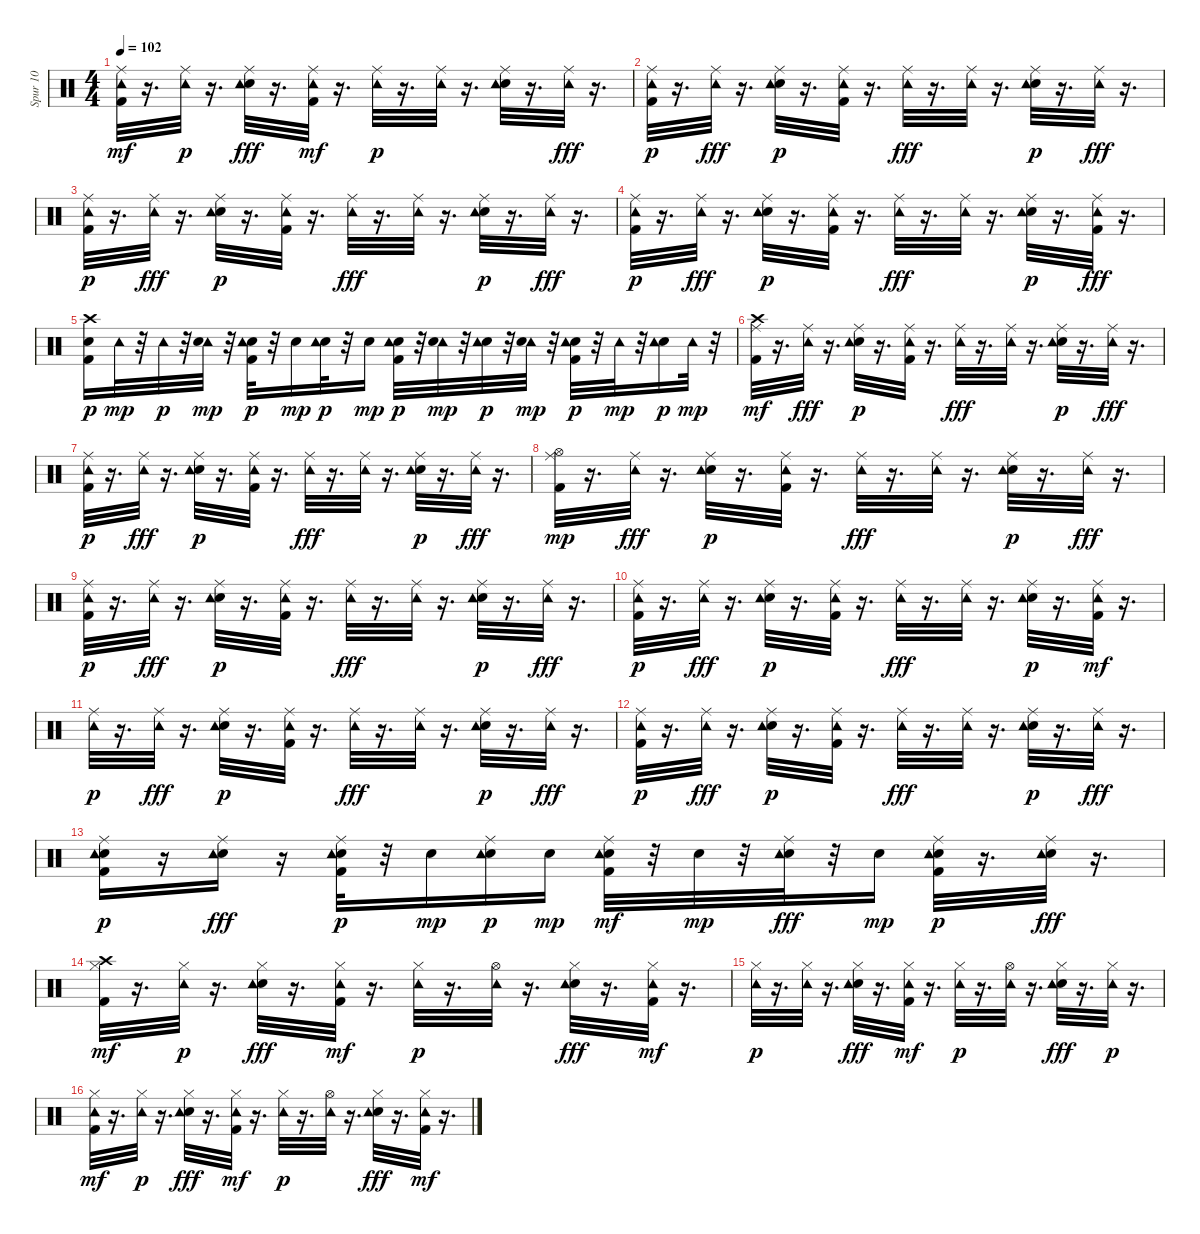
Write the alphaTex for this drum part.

\track ("Spur 10" "Spur 10") {instrument percussion}
\staff {score}
\articulation defaults
\ts (4 4)
\tempo 102
\clef neutral
\ks c
("Ride (middle)" "Tambourine (hit)" "Kick (hit) 2").32{dy mf} r.16{d} ("Ride (middle)" "Tambourine (hit)").32{dy p} r.16{d} ("Electric Snare (hit)" "Tambourine (hit)" "Ride (middle)").32{dy fff} r.16{d} ("Ride (middle)" "Tambourine (hit)" "Kick (hit) 2").32{dy mf} r.16{d} ("Ride (middle)" "Tambourine (hit)").32{dy p} r.16{d} ("Ride (middle)" "Tambourine (hit)").32 r.16{d} ("Ride (middle)" "Electric Snare (hit)" "Tambourine (hit)").32 r.16{d} ("Tambourine (hit)" "Ride (middle)").32{dy fff} r.16{d} |
("Kick (hit) 2" "Ride (middle)" "Tambourine (hit)").32{dy p} r.16{d} ("Tambourine (hit)" "Ride (middle)").32{dy fff} r.16{d} ("Ride (middle)" "Electric Snare (hit)" "Tambourine (hit)").32{dy p} r.16{d} ("Kick (hit) 2" "Ride (middle)" "Tambourine (hit)").32 r.16{d} ("Tambourine (hit)" "Ride (middle)").32{dy fff} r.16{d} ("Tambourine (hit)" "Ride (middle)").32 r.16{d} ("Ride (middle)" "Electric Snare (hit)" "Tambourine (hit)").32{dy p} r.16{d} ("Tambourine (hit)" "Ride (middle)").32{dy fff} r.16{d} |
("Kick (hit) 2" "Ride (middle)" "Tambourine (hit)").32{dy p} r.16{d} ("Tambourine (hit)" "Ride (middle)").32{dy fff} r.16{d} ("Ride (middle)" "Electric Snare (hit)" "Tambourine (hit)").32{dy p} r.16{d} ("Kick (hit) 2" "Ride (middle)" "Tambourine (hit)").32 r.16{d} ("Tambourine (hit)" "Ride (middle)").32{dy fff} r.16{d} ("Tambourine (hit)" "Ride (middle)").32 r.16{d} ("Ride (middle)" "Electric Snare (hit)" "Tambourine (hit)").32{dy p} r.16{d} ("Tambourine (hit)" "Ride (middle)").32{dy fff} r.16{d} |
("Kick (hit) 2" "Ride (middle)" "Tambourine (hit)").32{dy p} r.16{d} ("Tambourine (hit)" "Ride (middle)").32{dy fff} r.16{d} ("Ride (middle)" "Electric Snare (hit)" "Tambourine (hit)").32{dy p} r.16{d} ("Kick (hit) 2" "Ride (middle)" "Tambourine (hit)").32 r.16{d} ("Tambourine (hit)" "Ride (middle)").32{dy fff} r.16{d} ("Tambourine (hit)" "Ride (middle)").32 r.16{d} ("Ride (middle)" "Electric Snare (hit)" "Tambourine (hit)").32{dy p} r.16{d} ("Kick (hit) 2" "Tambourine (hit)" "Ride (middle)").32{dy fff} r.16{d} |
("Electric Snare (hit)" "Kick (hit) 2" "Crash high (hit)").16{dy p} "Tambourine (hit)".32{dy mp} r.32 "Tambourine (hit)".32{dy p} r.32 ("Tambourine (hit)" "Electric Snare (hit)").32{dy mp} r.32 ("Kick (hit) 2" "Electric Snare (hit)" "Tambourine (hit)").32{dy p} r.32 "Electric Snare (hit)".16{dy mp} ("Electric Snare (hit)" "Tambourine (hit)").32{dy p} r.32 "Electric Snare (hit)".16{dy mp} ("Kick (hit) 2" "Electric Snare (hit)" "Tambourine (hit)").32{dy p} r.32 ("Tambourine (hit)" "Electric Snare (hit)").32{dy mp} r.32 ("Electric Snare (hit)" "Tambourine (hit)").32{dy p} r.32 ("Tambourine (hit)" "Electric Snare (hit)").32{dy mp} r.32 ("Kick (hit) 2" "Electric Snare (hit)" "Tambourine (hit)").32{dy p} r.32 "Tambourine (hit)".32{dy mp} r.32 ("Electric Snare (hit)" "Tambourine (hit)").16{dy p} "Tambourine (hit)".32{dy mp} r.32 |
("Kick (hit) 2" "Ride (middle)" "Crash high (hit)").32{dy mf} r.16{d} ("Tambourine (hit)" "Ride (middle)").32{dy fff} r.16{d} ("Ride (middle)" "Electric Snare (hit)" "Tambourine (hit)").32{dy p} r.16{d} ("Kick (hit) 2" "Ride (middle)" "Tambourine (hit)").32 r.16{d} ("Tambourine (hit)" "Ride (middle)").32{dy fff} r.16{d} ("Tambourine (hit)" "Ride (middle)").32 r.16{d} ("Ride (middle)" "Electric Snare (hit)" "Tambourine (hit)").32{dy p} r.16{d} ("Tambourine (hit)" "Ride (middle)").32{dy fff} r.16{d} |
("Kick (hit) 2" "Ride (middle)" "Tambourine (hit)").32{dy p} r.16{d} ("Tambourine (hit)" "Ride (middle)").32{dy fff} r.16{d} ("Ride (middle)" "Electric Snare (hit)" "Tambourine (hit)").32{dy p} r.16{d} ("Kick (hit) 2" "Ride (middle)" "Tambourine (hit)").32 r.16{d} ("Tambourine (hit)" "Ride (middle)").32{dy fff} r.16{d} ("Tambourine (hit)" "Ride (middle)").32 r.16{d} ("Ride (middle)" "Electric Snare (hit)" "Tambourine (hit)").32{dy p} r.16{d} ("Tambourine (hit)" "Ride (middle)").32{dy fff} r.16{d} |
("Kick (hit) 2" "Ride (middle)" "Hi-Hat (open)").32{dy mp} r.16{d} ("Tambourine (hit)" "Ride (middle)").32{dy fff} r.16{d} ("Ride (middle)" "Electric Snare (hit)" "Tambourine (hit)").32{dy p} r.16{d} ("Kick (hit) 2" "Ride (middle)" "Tambourine (hit)").32 r.16{d} ("Tambourine (hit)" "Ride (middle)").32{dy fff} r.16{d} ("Tambourine (hit)" "Ride (middle)").32 r.16{d} ("Ride (middle)" "Electric Snare (hit)" "Tambourine (hit)").32{dy p} r.16{d} ("Tambourine (hit)" "Ride (middle)").32{dy fff} r.16{d} |
("Kick (hit) 2" "Ride (middle)" "Tambourine (hit)").32{dy p} r.16{d} ("Tambourine (hit)" "Ride (middle)").32{dy fff} r.16{d} ("Ride (middle)" "Electric Snare (hit)" "Tambourine (hit)").32{dy p} r.16{d} ("Kick (hit) 2" "Ride (middle)" "Tambourine (hit)").32 r.16{d} ("Tambourine (hit)" "Ride (middle)").32{dy fff} r.16{d} ("Tambourine (hit)" "Ride (middle)").32 r.16{d} ("Ride (middle)" "Electric Snare (hit)" "Tambourine (hit)").32{dy p} r.16{d} ("Tambourine (hit)" "Ride (middle)").32{dy fff} r.16{d} |
("Kick (hit) 2" "Ride (middle)" "Tambourine (hit)").32{dy p} r.16{d} ("Tambourine (hit)" "Ride (middle)").32{dy fff} r.16{d} ("Ride (middle)" "Electric Snare (hit)" "Tambourine (hit)").32{dy p} r.16{d} ("Kick (hit) 2" "Ride (middle)" "Tambourine (hit)").32 r.16{d} ("Tambourine (hit)" "Ride (middle)").32{dy fff} r.16{d} ("Tambourine (hit)" "Ride (middle)").32 r.16{d} ("Ride (middle)" "Electric Snare (hit)" "Tambourine (hit)").32{dy p} r.16{d} ("Tambourine (hit)" "Ride (middle)" "Kick (hit) 2").32{dy mf} r.16{d} |
("Ride (middle)" "Tambourine (hit)").32{dy p} r.16{d} ("Tambourine (hit)" "Ride (middle)").32{dy fff} r.16{d} ("Ride (middle)" "Electric Snare (hit)" "Tambourine (hit)").32{dy p} r.16{d} ("Kick (hit) 2" "Ride (middle)" "Tambourine (hit)").32 r.16{d} ("Tambourine (hit)" "Ride (middle)").32{dy fff} r.16{d} ("Tambourine (hit)" "Ride (middle)").32 r.16{d} ("Ride (middle)" "Electric Snare (hit)" "Tambourine (hit)").32{dy p} r.16{d} ("Tambourine (hit)" "Ride (middle)").32{dy fff} r.16{d} |
("Kick (hit) 2" "Ride (middle)" "Tambourine (hit)").32{dy p} r.16{d} ("Tambourine (hit)" "Ride (middle)").32{dy fff} r.16{d} ("Ride (middle)" "Electric Snare (hit)" "Tambourine (hit)").32{dy p} r.16{d} ("Kick (hit) 2" "Ride (middle)" "Tambourine (hit)").32 r.16{d} ("Tambourine (hit)" "Ride (middle)").32{dy fff} r.16{d} ("Tambourine (hit)" "Ride (middle)").32 r.16{d} ("Ride (middle)" "Electric Snare (hit)" "Tambourine (hit)").32{dy p} r.16{d} ("Tambourine (hit)" "Ride (middle)").32{dy fff} r.16{d} |
("Electric Snare (hit)" "Kick (hit) 2" "Ride (middle)" "Tambourine (hit)").16{dy p} r.16 ("Electric Snare (hit)" "Tambourine (hit)" "Ride (middle)").16{dy fff} r.16 ("Kick (hit) 2" "Ride (middle)" "Electric Snare (hit)" "Tambourine (hit)").32{dy p} r.32 "Electric Snare (hit)".16{dy mp} ("Electric Snare (hit)" "Ride (middle)" "Tambourine (hit)").16{dy p} "Electric Snare (hit)".16{dy mp} ("Electric Snare (hit)" "Tambourine (hit)" "Ride (middle)" "Kick (hit) 2").32{dy mf} r.32 "Electric Snare (hit)".32{dy mp} r.32 ("Electric Snare (hit)" "Tambourine (hit)" "Ride (middle)").32{dy fff} r.32 "Electric Snare (hit)".16{dy mp} ("Electric Snare (hit)" "Kick (hit) 2" "Ride (middle)" "Tambourine (hit)").32{dy p} r.16{d} ("Electric Snare (hit)" "Tambourine (hit)" "Ride (middle)").32{dy fff} r.16{d} |
("Hi-Hat (closed)" "Crash high (hit)" "Kick (hit) 2").32{dy mf} r.16{d} ("Hi-Hat (closed)" "Tambourine (hit)").32{dy p} r.16{d} ("Electric Snare (hit)" "Tambourine (hit)" "Hi-Hat (closed)").32{dy fff} r.16{d} ("Hi-Hat (closed)" "Tambourine (hit)" "Kick (hit) 2").32{dy mf} r.16{d} ("Hi-Hat (closed)" "Tambourine (hit)").32{dy p} r.16{d} ("Hi-Hat (open)" "Tambourine (hit)").32 r.16{d} ("Electric Snare (hit)" "Tambourine (hit)" "Hi-Hat (closed)").32{dy fff} r.16{d} ("Hi-Hat (closed)" "Tambourine (hit)" "Kick (hit) 2").32{dy mf} r.16{d} |
("Hi-Hat (closed)" "Tambourine (hit)").32{dy p} r.16{d} ("Hi-Hat (closed)" "Tambourine (hit)").32 r.16{d} ("Electric Snare (hit)" "Tambourine (hit)" "Hi-Hat (closed)").32{dy fff} r.16{d} ("Hi-Hat (closed)" "Tambourine (hit)" "Kick (hit) 2").32{dy mf} r.16{d} ("Hi-Hat (closed)" "Tambourine (hit)").32{dy p} r.16{d} ("Hi-Hat (open)" "Tambourine (hit)").32 r.16{d} ("Electric Snare (hit)" "Tambourine (hit)" "Hi-Hat (closed)").32{dy fff} r.16{d} ("Hi-Hat (closed)" "Tambourine (hit)").32{dy p} r.16{d} |
("Hi-Hat (closed)" "Tambourine (hit)" "Kick (hit) 2").32{dy mf} r.16{d} ("Hi-Hat (closed)" "Tambourine (hit)").32{dy p} r.16{d} ("Electric Snare (hit)" "Tambourine (hit)" "Hi-Hat (closed)").32{dy fff} r.16{d} ("Hi-Hat (closed)" "Tambourine (hit)" "Kick (hit) 2").32{dy mf} r.16{d} ("Hi-Hat (closed)" "Tambourine (hit)").32{dy p} r.16{d} ("Hi-Hat (open)" "Tambourine (hit)").32 r.16{d} ("Electric Snare (hit)" "Tambourine (hit)" "Hi-Hat (closed)").32{dy fff} r.16{d} ("Hi-Hat (closed)" "Tambourine (hit)" "Kick (hit) 2").32{dy mf} r.16{d}
